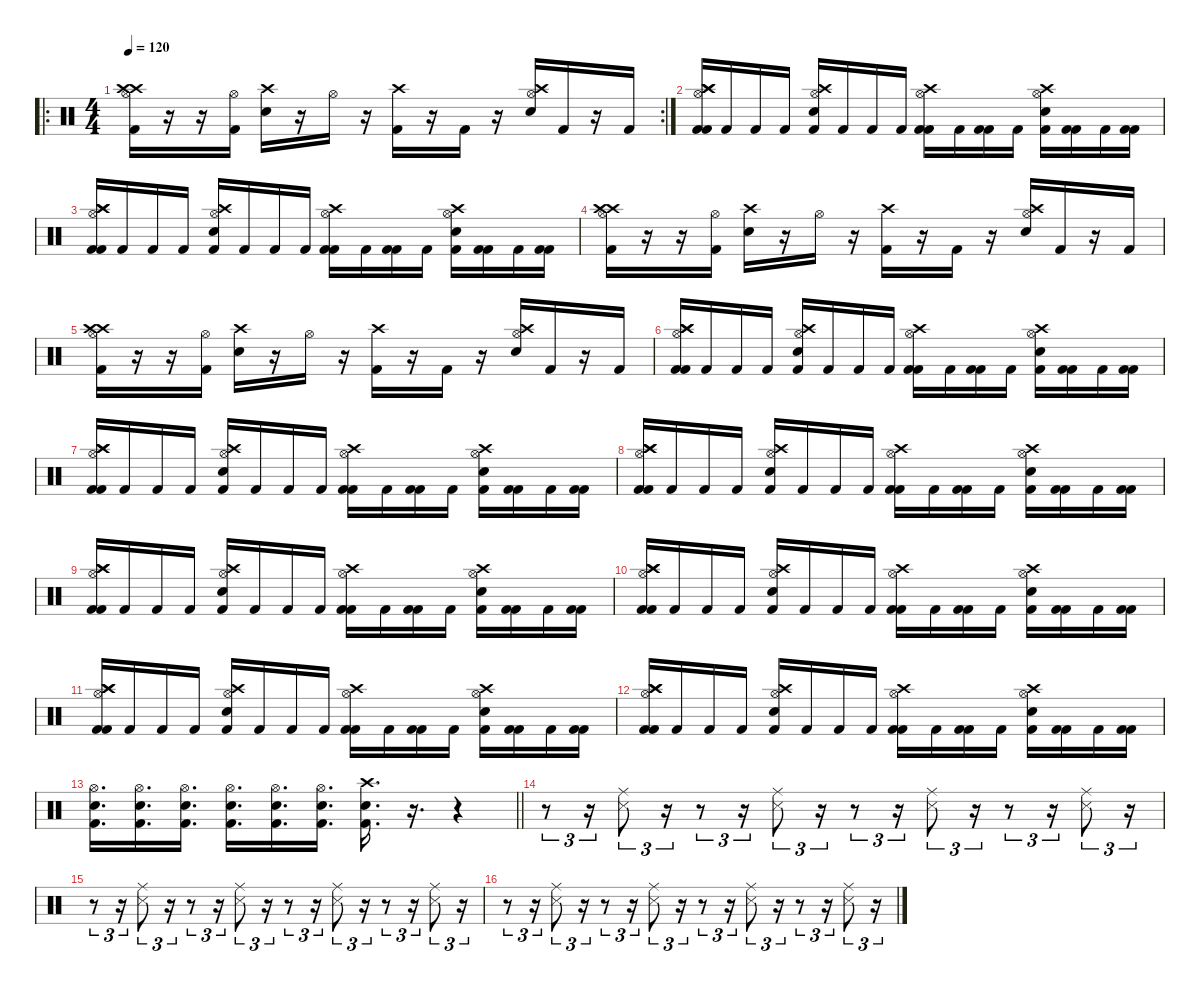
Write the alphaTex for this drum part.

\defaultSystemsLayout 4
\hideDynamics
\bracketExtendMode nobrackets
\singleTrackTrackNamePolicy hidden
\multiTrackTrackNamePolicy hidden
\firstSystemTrackNameMode fullname
\firstSystemTrackNameOrientation horizontal
\otherSystemsTrackNameOrientation horizontal
\track ("DRUMS" "drm.") {defaultSystemsLayout 4 instrument percussion}
\staff {score}
\articulation defaults
\ro
\rc 2
\ts (4 4)
\tempo 120
\clef neutral
\ks c
("Crash high (hit)" "Kick (hit) 2" "Hi-Hat (open)" "Crash high (hit)").16{dy f beam Down} r.16{beam Down} r.16{beam Down} ("Kick (hit) 2" "Hi-Hat (open)").16{beam Down} ("Crash high (hit)" "Snare (hit) 2").16{beam Down} r.16{beam Down} "Hi-Hat (open)".16{beam Down} r.16{beam Down} ("Crash high (hit)" "Kick (hit) 2").16{beam Down} r.16{beam Down} "Kick (hit) 2".16{beam Down} r.16{beam Down} ("Crash high (hit)" "Snare (hit) 2" "Hi-Hat (open)").16{beam Up} "Kick (hit) 2".16{beam Up} r.16{beam Up} "Kick (hit) 2".16{beam Up} |
("Crash high (hit)" "Kick (hit) 2" "Hi-Hat (open)" "Crash high (hit)" "Kick (hit) 2").16{beam Up} "Kick (hit) 2".16{beam Up} "Kick (hit) 2".16{beam Up} "Kick (hit) 2".16{beam Up} ("Crash high (hit)" "Snare (hit) 2" "Hi-Hat (open)" "Kick (hit) 2").16{beam Up} "Kick (hit) 2".16{beam Up} "Kick (hit) 2".16{beam Up} "Kick (hit) 2".16{beam Up} ("Crash high (hit)" "Kick (hit) 2" "Hi-Hat (open)" "Kick (hit) 2").16{beam Down} "Kick (hit) 2".16{beam Down} ("Kick (hit) 2" "Kick (hit) 2").16{beam Down} "Kick (hit) 2".16{beam Down} ("Crash high (hit)" "Snare (hit) 2" "Hi-Hat (open)" "Kick (hit) 2").16{beam Down} ("Kick (hit) 2" "Kick (hit) 2").16{beam Down} "Kick (hit) 2".16{beam Down} ("Kick (hit) 2" "Kick (hit) 2").16{beam Down} |
("Crash high (hit)" "Kick (hit) 2" "Hi-Hat (open)" "Crash high (hit)" "Kick (hit) 2").16{beam Up} "Kick (hit) 2".16{beam Up} "Kick (hit) 2".16{beam Up} "Kick (hit) 2".16{beam Up} ("Crash high (hit)" "Snare (hit) 2" "Hi-Hat (open)" "Kick (hit) 2").16{beam Up} "Kick (hit) 2".16{beam Up} "Kick (hit) 2".16{beam Up} "Kick (hit) 2".16{beam Up} ("Crash high (hit)" "Kick (hit) 2" "Hi-Hat (open)" "Kick (hit) 2").16{beam Down} "Kick (hit) 2".16{beam Down} ("Kick (hit) 2" "Kick (hit) 2").16{beam Down} "Kick (hit) 2".16{beam Down} ("Crash high (hit)" "Snare (hit) 2" "Hi-Hat (open)" "Kick (hit) 2").16{beam Down} ("Kick (hit) 2" "Kick (hit) 2").16{beam Down} "Kick (hit) 2".16{beam Down} ("Kick (hit) 2" "Kick (hit) 2").16{beam Down} |
("Crash high (hit)" "Kick (hit) 2" "Hi-Hat (open)" "Crash high (hit)").16{beam Down} r.16{beam Down} r.16{beam Down} ("Kick (hit) 2" "Hi-Hat (open)").16{beam Down} ("Crash high (hit)" "Snare (hit) 2").16{beam Down} r.16{beam Down} "Hi-Hat (open)".16{beam Down} r.16{beam Down} ("Crash high (hit)" "Kick (hit) 2").16{beam Down} r.16{beam Down} "Kick (hit) 2".16{beam Down} r.16{beam Down} ("Crash high (hit)" "Snare (hit) 2" "Hi-Hat (open)").16{beam Up} "Kick (hit) 2".16{beam Up} r.16{beam Up} "Kick (hit) 2".16{beam Up} |
("Crash high (hit)" "Kick (hit) 2" "Hi-Hat (open)" "Crash high (hit)").16{beam Down} r.16{beam Down} r.16{beam Down} ("Kick (hit) 2" "Hi-Hat (open)").16{beam Down} ("Crash high (hit)" "Snare (hit) 2").16{beam Down} r.16{beam Down} "Hi-Hat (open)".16{beam Down} r.16{beam Down} ("Crash high (hit)" "Kick (hit) 2").16{beam Down} r.16{beam Down} "Kick (hit) 2".16{beam Down} r.16{beam Down} ("Crash high (hit)" "Snare (hit) 2" "Hi-Hat (open)").16{beam Up} "Kick (hit) 2".16{beam Up} r.16{beam Up} "Kick (hit) 2".16{beam Up} |
("Crash high (hit)" "Kick (hit) 2" "Hi-Hat (open)" "Crash high (hit)" "Kick (hit) 2").16{beam Up} "Kick (hit) 2".16{beam Up} "Kick (hit) 2".16{beam Up} "Kick (hit) 2".16{beam Up} ("Crash high (hit)" "Snare (hit) 2" "Hi-Hat (open)" "Kick (hit) 2").16{beam Up} "Kick (hit) 2".16{beam Up} "Kick (hit) 2".16{beam Up} "Kick (hit) 2".16{beam Up} ("Crash high (hit)" "Kick (hit) 2" "Hi-Hat (open)" "Kick (hit) 2").16{beam Down} "Kick (hit) 2".16{beam Down} ("Kick (hit) 2" "Kick (hit) 2").16{beam Down} "Kick (hit) 2".16{beam Down} ("Crash high (hit)" "Snare (hit) 2" "Hi-Hat (open)" "Kick (hit) 2").16{beam Down} ("Kick (hit) 2" "Kick (hit) 2").16{beam Down} "Kick (hit) 2".16{beam Down} ("Kick (hit) 2" "Kick (hit) 2").16{beam Down} |
("Crash high (hit)" "Kick (hit) 2" "Hi-Hat (open)" "Crash high (hit)" "Kick (hit) 2").16{beam Up} "Kick (hit) 2".16{beam Up} "Kick (hit) 2".16{beam Up} "Kick (hit) 2".16{beam Up} ("Crash high (hit)" "Snare (hit) 2" "Hi-Hat (open)" "Kick (hit) 2").16{beam Up} "Kick (hit) 2".16{beam Up} "Kick (hit) 2".16{beam Up} "Kick (hit) 2".16{beam Up} ("Crash high (hit)" "Kick (hit) 2" "Hi-Hat (open)" "Kick (hit) 2").16{beam Down} "Kick (hit) 2".16{beam Down} ("Kick (hit) 2" "Kick (hit) 2").16{beam Down} "Kick (hit) 2".16{beam Down} ("Crash high (hit)" "Snare (hit) 2" "Hi-Hat (open)" "Kick (hit) 2").16{beam Down} ("Kick (hit) 2" "Kick (hit) 2").16{beam Down} "Kick (hit) 2".16{beam Down} ("Kick (hit) 2" "Kick (hit) 2").16{beam Down} |
("Crash high (hit)" "Kick (hit) 2" "Hi-Hat (open)" "Crash high (hit)" "Kick (hit) 2").16{beam Up} "Kick (hit) 2".16{beam Up} "Kick (hit) 2".16{beam Up} "Kick (hit) 2".16{beam Up} ("Crash high (hit)" "Snare (hit) 2" "Hi-Hat (open)" "Kick (hit) 2").16{beam Up} "Kick (hit) 2".16{beam Up} "Kick (hit) 2".16{beam Up} "Kick (hit) 2".16{beam Up} ("Crash high (hit)" "Kick (hit) 2" "Hi-Hat (open)" "Kick (hit) 2").16{beam Down} "Kick (hit) 2".16{beam Down} ("Kick (hit) 2" "Kick (hit) 2").16{beam Down} "Kick (hit) 2".16{beam Down} ("Crash high (hit)" "Snare (hit) 2" "Hi-Hat (open)" "Kick (hit) 2").16{beam Down} ("Kick (hit) 2" "Kick (hit) 2").16{beam Down} "Kick (hit) 2".16{beam Down} ("Kick (hit) 2" "Kick (hit) 2").16{beam Down} |
("Crash high (hit)" "Kick (hit) 2" "Hi-Hat (open)" "Crash high (hit)" "Kick (hit) 2").16{beam Up} "Kick (hit) 2".16{beam Up} "Kick (hit) 2".16{beam Up} "Kick (hit) 2".16{beam Up} ("Crash high (hit)" "Snare (hit) 2" "Hi-Hat (open)" "Kick (hit) 2").16{beam Up} "Kick (hit) 2".16{beam Up} "Kick (hit) 2".16{beam Up} "Kick (hit) 2".16{beam Up} ("Crash high (hit)" "Kick (hit) 2" "Hi-Hat (open)" "Kick (hit) 2").16{beam Down} "Kick (hit) 2".16{beam Down} ("Kick (hit) 2" "Kick (hit) 2").16{beam Down} "Kick (hit) 2".16{beam Down} ("Crash high (hit)" "Snare (hit) 2" "Hi-Hat (open)" "Kick (hit) 2").16{beam Down} ("Kick (hit) 2" "Kick (hit) 2").16{beam Down} "Kick (hit) 2".16{beam Down} ("Kick (hit) 2" "Kick (hit) 2").16{beam Down} |
("Crash high (hit)" "Kick (hit) 2" "Hi-Hat (open)" "Crash high (hit)" "Kick (hit) 2").16{beam Up} "Kick (hit) 2".16{beam Up} "Kick (hit) 2".16{beam Up} "Kick (hit) 2".16{beam Up} ("Crash high (hit)" "Snare (hit) 2" "Hi-Hat (open)" "Kick (hit) 2").16{beam Up} "Kick (hit) 2".16{beam Up} "Kick (hit) 2".16{beam Up} "Kick (hit) 2".16{beam Up} ("Crash high (hit)" "Kick (hit) 2" "Hi-Hat (open)" "Kick (hit) 2").16{beam Down} "Kick (hit) 2".16{beam Down} ("Kick (hit) 2" "Kick (hit) 2").16{beam Down} "Kick (hit) 2".16{beam Down} ("Crash high (hit)" "Snare (hit) 2" "Hi-Hat (open)" "Kick (hit) 2").16{beam Down} ("Kick (hit) 2" "Kick (hit) 2").16{beam Down} "Kick (hit) 2".16{beam Down} ("Kick (hit) 2" "Kick (hit) 2").16{beam Down} |
("Crash high (hit)" "Kick (hit) 2" "Hi-Hat (open)" "Crash high (hit)" "Kick (hit) 2").16{beam Up} "Kick (hit) 2".16{beam Up} "Kick (hit) 2".16{beam Up} "Kick (hit) 2".16{beam Up} ("Crash high (hit)" "Snare (hit) 2" "Hi-Hat (open)" "Kick (hit) 2").16{beam Up} "Kick (hit) 2".16{beam Up} "Kick (hit) 2".16{beam Up} "Kick (hit) 2".16{beam Up} ("Crash high (hit)" "Kick (hit) 2" "Hi-Hat (open)" "Kick (hit) 2").16{beam Down} "Kick (hit) 2".16{beam Down} ("Kick (hit) 2" "Kick (hit) 2").16{beam Down} "Kick (hit) 2".16{beam Down} ("Crash high (hit)" "Snare (hit) 2" "Hi-Hat (open)" "Kick (hit) 2").16{beam Down} ("Kick (hit) 2" "Kick (hit) 2").16{beam Down} "Kick (hit) 2".16{beam Down} ("Kick (hit) 2" "Kick (hit) 2").16{beam Down} |
("Crash high (hit)" "Kick (hit) 2" "Hi-Hat (open)" "Crash high (hit)" "Kick (hit) 2").16{beam Up} "Kick (hit) 2".16{beam Up} "Kick (hit) 2".16{beam Up} "Kick (hit) 2".16{beam Up} ("Crash high (hit)" "Snare (hit) 2" "Hi-Hat (open)" "Kick (hit) 2").16{beam Up} "Kick (hit) 2".16{beam Up} "Kick (hit) 2".16{beam Up} "Kick (hit) 2".16{beam Up} ("Crash high (hit)" "Kick (hit) 2" "Hi-Hat (open)" "Kick (hit) 2").16{beam Down} "Kick (hit) 2".16{beam Down} ("Kick (hit) 2" "Kick (hit) 2").16{beam Down} "Kick (hit) 2".16{beam Down} ("Crash high (hit)" "Snare (hit) 2" "Hi-Hat (open)" "Kick (hit) 2").16{beam Down} ("Kick (hit) 2" "Kick (hit) 2").16{beam Down} "Kick (hit) 2".16{beam Down} ("Kick (hit) 2" "Kick (hit) 2").16{beam Down} |
\barLineRight lightlight
("Hi-Hat (open)" "Kick (hit) 2" "Snare (hit) 2").16{d beam Down} ("Hi-Hat (open)" "Kick (hit) 2" "Snare (hit) 2").16{d beam Down} ("Hi-Hat (open)" "Kick (hit) 2" "Snare (hit) 2").16{d beam Down} ("Hi-Hat (open)" "Kick (hit) 2" "Snare (hit) 2").16{d beam Down} ("Hi-Hat (open)" "Kick (hit) 2" "Snare (hit) 2").16{d beam Down} ("Hi-Hat (open)" "Kick (hit) 2" "Snare (hit) 2").16{d beam Down} ("Crash high (hit)" "Kick (hit) 2" "Snare (hit) 2").16{d beam Down} r.16{d beam Down} r.4{beam Down} |
r.8{tu (3 2) beam Down} r.16{tu (3 2) beam Down} ("Ride (middle)" "Snare (side stick) 3").8{tu (3 2) beam Down} r.16{tu (3 2) beam Down} r.8{tu (3 2) beam Down} r.16{tu (3 2) beam Down} ("Ride (middle)" "Snare (side stick) 3").8{tu (3 2) beam Down} r.16{tu (3 2) beam Down} r.8{tu (3 2) beam Down} r.16{tu (3 2) beam Down} ("Ride (middle)" "Snare (side stick) 3").8{tu (3 2) beam Down} r.16{tu (3 2) beam Down} r.8{tu (3 2) beam Down} r.16{tu (3 2) beam Down} ("Ride (middle)" "Snare (side stick) 3").8{tu (3 2) beam Down} r.16{tu (3 2) beam Down} |
r.8{tu (3 2) beam Down} r.16{tu (3 2) beam Down} ("Ride (middle)" "Snare (side stick) 3").8{tu (3 2) beam Down} r.16{tu (3 2) beam Down} r.8{tu (3 2) beam Down} r.16{tu (3 2) beam Down} ("Ride (middle)" "Snare (side stick) 3").8{tu (3 2) beam Down} r.16{tu (3 2) beam Down} r.8{tu (3 2) beam Down} r.16{tu (3 2) beam Down} ("Ride (middle)" "Snare (side stick) 3").8{tu (3 2) beam Down} r.16{tu (3 2) beam Down} r.8{tu (3 2) beam Down} r.16{tu (3 2) beam Down} ("Ride (middle)" "Snare (side stick) 3").8{tu (3 2) beam Down} r.16{tu (3 2) beam Down} |
r.8{tu (3 2) beam Down} r.16{tu (3 2) beam Down} ("Ride (middle)" "Snare (side stick) 3").8{tu (3 2) beam Down} r.16{tu (3 2) beam Down} r.8{tu (3 2) beam Down} r.16{tu (3 2) beam Down} ("Ride (middle)" "Snare (side stick) 3").8{tu (3 2) beam Down} r.16{tu (3 2) beam Down} r.8{tu (3 2) beam Down} r.16{tu (3 2) beam Down} ("Ride (middle)" "Snare (side stick) 3").8{tu (3 2) beam Down} r.16{tu (3 2) beam Down} r.8{tu (3 2) beam Down} r.16{tu (3 2) beam Down} ("Ride (middle)" "Snare (side stick) 3").8{tu (3 2) beam Down} r.16{tu (3 2) beam Down}
